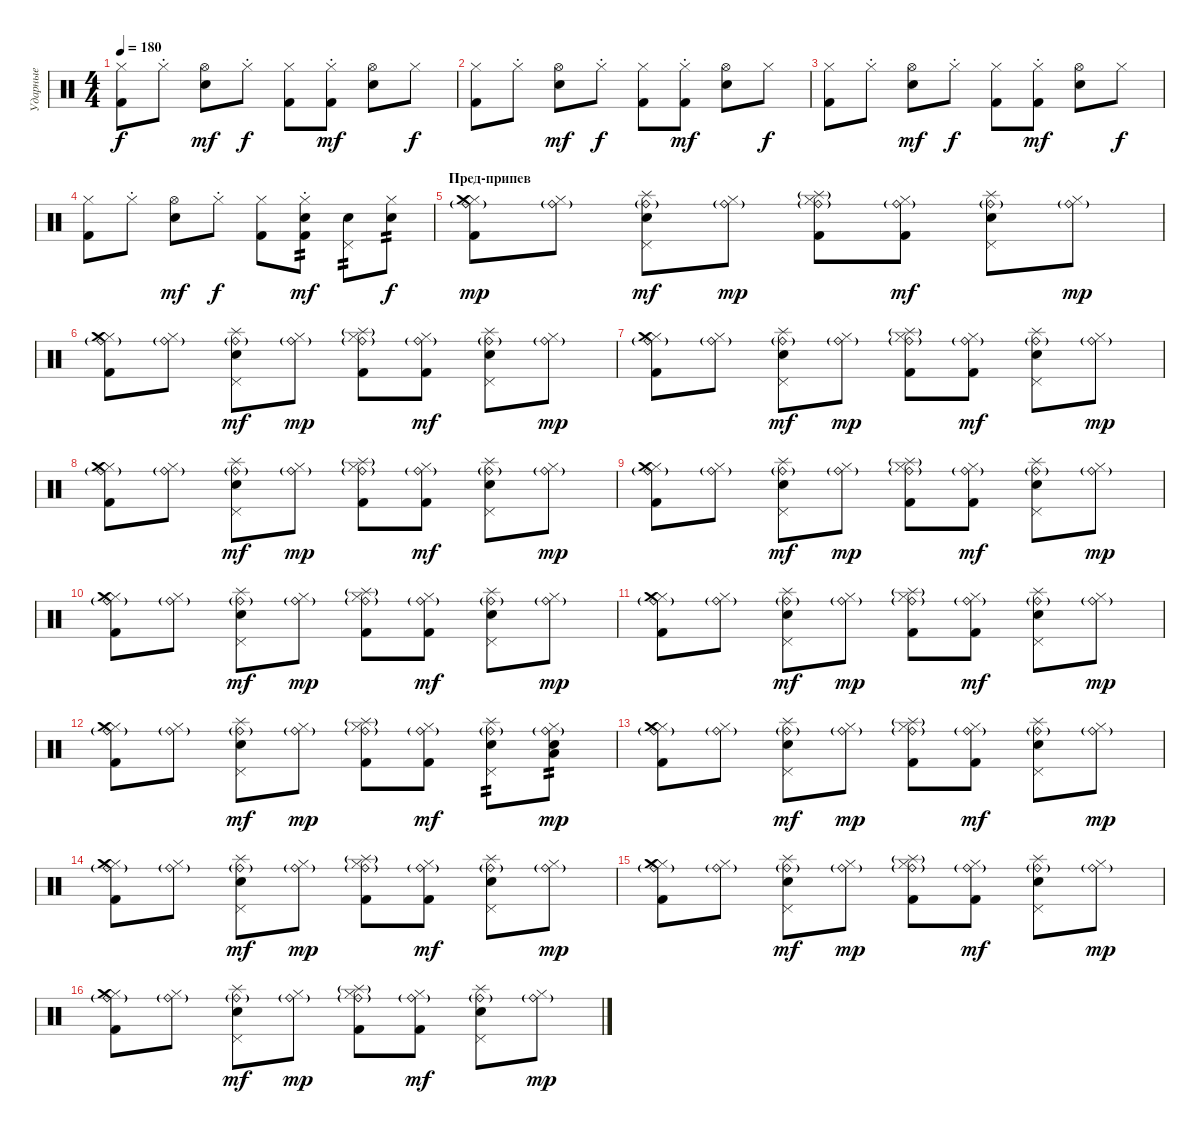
\track ("Ударные" "Ударные") {instrument percussion}
\staff {score}
\articulation defaults
\ts (4 4)
\tempo 180
\clef neutral
\ks c
("Hi-Hat (closed)" "Kick (hit) 2").8{dy f} "Hi-Hat (closed)"{st}.8 ("Hi-Hat (open)" "Snare (hit) 2").8{dy mf} "Hi-Hat (closed)"{st}.8{dy f} ("Hi-Hat (closed)" "Kick (hit) 2").8 ("Hi-Hat (closed)"{st} "Kick (hit) 2").8{dy mf} ("Hi-Hat (open)" "Snare (hit) 2").8 "Hi-Hat (closed)".8{dy f} |
("Hi-Hat (closed)" "Kick (hit) 2").8 "Hi-Hat (closed)"{st}.8 ("Hi-Hat (open)" "Snare (hit) 2").8{dy mf} "Hi-Hat (closed)"{st}.8{dy f} ("Hi-Hat (closed)" "Kick (hit) 2").8 ("Hi-Hat (closed)"{st} "Kick (hit) 2").8{dy mf} ("Hi-Hat (open)" "Snare (hit) 2").8 "Hi-Hat (closed)".8{dy f} |
("Hi-Hat (closed)" "Kick (hit) 2").8 "Hi-Hat (closed)"{st}.8 ("Hi-Hat (open)" "Snare (hit) 2").8{dy mf} "Hi-Hat (closed)"{st}.8{dy f} ("Hi-Hat (closed)" "Kick (hit) 2").8 ("Hi-Hat (closed)"{st} "Kick (hit) 2").8{dy mf} ("Hi-Hat (open)" "Snare (hit) 2").8 "Hi-Hat (closed)".8{dy f} |
("Hi-Hat (closed)" "Kick (hit) 2").8 "Hi-Hat (closed)"{st}.8 ("Hi-Hat (open)" "Snare (hit) 2").8{dy mf} "Hi-Hat (closed)"{st}.8{dy f} ("Hi-Hat (closed)" "Kick (hit) 2").8 ("Hi-Hat (closed)"{st} "Kick (hit) 2" "Electric Snare (hit)").8{tp 2 dy mf} ("Pedal Hi-Hat (hit)" "Snare (hit) 2").8{tp 2} ("Hi-Hat (closed)" "Snare (hit) 2").8{tp 2 dy f} |
\section ("" "Пред-припев")
("Ride (bell)"{g} "Hi-Hat (closed)" "Kick (hit) 2" "Crash medium (hit)").8{dy mp} ("Ride (bell)"{g} "Hi-Hat (closed)").8 ("Ride (bell)"{g} "Snare (hit) 2" "Pedal Hi-Hat (hit)" "Splash (hit)").8{dy mf} ("Ride (bell)"{g} "Hi-Hat (closed)").8{dy mp} ("Ride (bell)"{g} "Hi-Hat (closed)" "Kick (hit) 2" "Splash (hit)"{g}).8 ("Ride (bell)"{g} "Hi-Hat (closed)" "Kick (hit) 2").8{dy mf} ("Ride (bell)"{g} "Pedal Hi-Hat (hit)" "Snare (hit) 2" "Splash (hit)").8 ("Ride (bell)"{g} "Hi-Hat (closed)").8{dy mp} |
("Ride (bell)"{g} "Hi-Hat (closed)" "Kick (hit) 2" "Crash medium (hit)").8 ("Ride (bell)"{g} "Hi-Hat (closed)").8 ("Ride (bell)"{g} "Snare (hit) 2" "Pedal Hi-Hat (hit)" "Splash (hit)").8{dy mf} ("Ride (bell)"{g} "Hi-Hat (closed)").8{dy mp} ("Ride (bell)"{g} "Hi-Hat (closed)" "Kick (hit) 2" "Splash (hit)"{g}).8 ("Ride (bell)"{g} "Hi-Hat (closed)" "Kick (hit) 2").8{dy mf} ("Ride (bell)"{g} "Pedal Hi-Hat (hit)" "Snare (hit) 2" "Splash (hit)").8 ("Ride (bell)"{g} "Hi-Hat (closed)").8{dy mp} |
("Ride (bell)"{g} "Hi-Hat (closed)" "Kick (hit) 2" "Crash medium (hit)").8 ("Ride (bell)"{g} "Hi-Hat (closed)").8 ("Ride (bell)"{g} "Snare (hit) 2" "Pedal Hi-Hat (hit)" "Splash (hit)").8{dy mf} ("Ride (bell)"{g} "Hi-Hat (closed)").8{dy mp} ("Ride (bell)"{g} "Hi-Hat (closed)" "Kick (hit) 2" "Splash (hit)"{g}).8 ("Ride (bell)"{g} "Hi-Hat (closed)" "Kick (hit) 2").8{dy mf} ("Ride (bell)"{g} "Pedal Hi-Hat (hit)" "Snare (hit) 2" "Splash (hit)").8 ("Ride (bell)"{g} "Hi-Hat (closed)").8{dy mp} |
("Ride (bell)"{g} "Hi-Hat (closed)" "Kick (hit) 2" "Crash medium (hit)").8 ("Ride (bell)"{g} "Hi-Hat (closed)").8 ("Ride (bell)"{g} "Snare (hit) 2" "Pedal Hi-Hat (hit)" "Splash (hit)").8{dy mf} ("Ride (bell)"{g} "Hi-Hat (closed)").8{dy mp} ("Ride (bell)"{g} "Hi-Hat (closed)" "Kick (hit) 2" "Splash (hit)"{g}).8 ("Ride (bell)"{g} "Hi-Hat (closed)" "Kick (hit) 2").8{dy mf} ("Ride (bell)"{g} "Pedal Hi-Hat (hit)" "Snare (hit) 2" "Splash (hit)").8 ("Ride (bell)"{g} "Hi-Hat (closed)").8{dy mp} |
("Ride (bell)"{g} "Hi-Hat (closed)" "Kick (hit) 2" "Crash medium (hit)").8 ("Ride (bell)"{g} "Hi-Hat (closed)").8 ("Ride (bell)"{g} "Snare (hit) 2" "Pedal Hi-Hat (hit)" "Splash (hit)").8{dy mf} ("Ride (bell)"{g} "Hi-Hat (closed)").8{dy mp} ("Ride (bell)"{g} "Hi-Hat (closed)" "Kick (hit) 2" "Splash (hit)"{g}).8 ("Ride (bell)"{g} "Hi-Hat (closed)" "Kick (hit) 2").8{dy mf} ("Ride (bell)"{g} "Pedal Hi-Hat (hit)" "Snare (hit) 2" "Splash (hit)").8 ("Ride (bell)"{g} "Hi-Hat (closed)").8{dy mp} |
("Ride (bell)"{g} "Hi-Hat (closed)" "Kick (hit) 2" "Crash medium (hit)").8 ("Ride (bell)"{g} "Hi-Hat (closed)").8 ("Ride (bell)"{g} "Snare (hit) 2" "Pedal Hi-Hat (hit)" "Splash (hit)").8{dy mf} ("Ride (bell)"{g} "Hi-Hat (closed)").8{dy mp} ("Ride (bell)"{g} "Hi-Hat (closed)" "Kick (hit) 2" "Splash (hit)"{g}).8 ("Ride (bell)"{g} "Hi-Hat (closed)" "Kick (hit) 2").8{dy mf} ("Ride (bell)"{g} "Pedal Hi-Hat (hit)" "Snare (hit) 2" "Splash (hit)").8 ("Ride (bell)"{g} "Hi-Hat (closed)").8{dy mp} |
("Ride (bell)"{g} "Hi-Hat (closed)" "Kick (hit) 2" "Crash medium (hit)").8 ("Ride (bell)"{g} "Hi-Hat (closed)").8 ("Ride (bell)"{g} "Snare (hit) 2" "Pedal Hi-Hat (hit)" "Splash (hit)").8{dy mf} ("Ride (bell)"{g} "Hi-Hat (closed)").8{dy mp} ("Ride (bell)"{g} "Hi-Hat (closed)" "Kick (hit) 2" "Splash (hit)"{g}).8 ("Ride (bell)"{g} "Hi-Hat (closed)" "Kick (hit) 2").8{dy mf} ("Ride (bell)"{g} "Pedal Hi-Hat (hit)" "Snare (hit) 2" "Splash (hit)").8 ("Ride (bell)"{g} "Hi-Hat (closed)").8{dy mp} |
("Ride (bell)"{g} "Hi-Hat (closed)" "Kick (hit) 2" "Crash medium (hit)").8 ("Ride (bell)"{g} "Hi-Hat (closed)").8 ("Ride (bell)"{g} "Snare (hit) 2" "Pedal Hi-Hat (hit)" "Splash (hit)").8{dy mf} ("Ride (bell)"{g} "Hi-Hat (closed)").8{dy mp} ("Ride (bell)"{g} "Hi-Hat (closed)" "Kick (hit) 2" "Splash (hit)"{g}).8 ("Ride (bell)"{g} "Hi-Hat (closed)" "Kick (hit) 2").8{dy mf} ("Ride (bell)"{g} "Pedal Hi-Hat (hit)" "Snare (hit) 2" "Splash (hit)").8{tp 2} ("Ride (bell)"{g} "Hi-Hat (closed)" "Low Floor Tom (hit)" "Snare (hit) 2").8{tp 2 dy mp} |
("Ride (bell)"{g} "Hi-Hat (closed)" "Kick (hit) 2" "Crash medium (hit)").8 ("Ride (bell)"{g} "Hi-Hat (closed)").8 ("Ride (bell)"{g} "Snare (hit) 2" "Pedal Hi-Hat (hit)" "Splash (hit)").8{dy mf} ("Ride (bell)"{g} "Hi-Hat (closed)").8{dy mp} ("Ride (bell)"{g} "Hi-Hat (closed)" "Kick (hit) 2" "Splash (hit)"{g}).8 ("Ride (bell)"{g} "Hi-Hat (closed)" "Kick (hit) 2").8{dy mf} ("Ride (bell)"{g} "Pedal Hi-Hat (hit)" "Snare (hit) 2" "Splash (hit)").8 ("Ride (bell)"{g} "Hi-Hat (closed)").8{dy mp} |
("Ride (bell)"{g} "Hi-Hat (closed)" "Kick (hit) 2" "Crash medium (hit)").8 ("Ride (bell)"{g} "Hi-Hat (closed)").8 ("Ride (bell)"{g} "Snare (hit) 2" "Pedal Hi-Hat (hit)" "Splash (hit)").8{dy mf} ("Ride (bell)"{g} "Hi-Hat (closed)").8{dy mp} ("Ride (bell)"{g} "Hi-Hat (closed)" "Kick (hit) 2" "Splash (hit)"{g}).8 ("Ride (bell)"{g} "Hi-Hat (closed)" "Kick (hit) 2").8{dy mf} ("Ride (bell)"{g} "Pedal Hi-Hat (hit)" "Snare (hit) 2" "Splash (hit)").8 ("Ride (bell)"{g} "Hi-Hat (closed)").8{dy mp} |
("Ride (bell)"{g} "Hi-Hat (closed)" "Kick (hit) 2" "Crash medium (hit)").8 ("Ride (bell)"{g} "Hi-Hat (closed)").8 ("Ride (bell)"{g} "Snare (hit) 2" "Pedal Hi-Hat (hit)" "Splash (hit)").8{dy mf} ("Ride (bell)"{g} "Hi-Hat (closed)").8{dy mp} ("Ride (bell)"{g} "Hi-Hat (closed)" "Kick (hit) 2" "Splash (hit)"{g}).8 ("Ride (bell)"{g} "Hi-Hat (closed)" "Kick (hit) 2").8{dy mf} ("Ride (bell)"{g} "Pedal Hi-Hat (hit)" "Snare (hit) 2" "Splash (hit)").8 ("Ride (bell)"{g} "Hi-Hat (closed)").8{dy mp} |
("Ride (bell)"{g} "Hi-Hat (closed)" "Kick (hit) 2" "Crash medium (hit)").8 ("Ride (bell)"{g} "Hi-Hat (closed)").8 ("Ride (bell)"{g} "Snare (hit) 2" "Pedal Hi-Hat (hit)" "Splash (hit)").8{dy mf} ("Ride (bell)"{g} "Hi-Hat (closed)").8{dy mp} ("Ride (bell)"{g} "Hi-Hat (closed)" "Kick (hit) 2" "Splash (hit)"{g}).8 ("Ride (bell)"{g} "Hi-Hat (closed)" "Kick (hit) 2").8{dy mf} ("Ride (bell)"{g} "Pedal Hi-Hat (hit)" "Snare (hit) 2" "Splash (hit)").8 ("Ride (bell)"{g} "Hi-Hat (closed)").8{dy mp}
